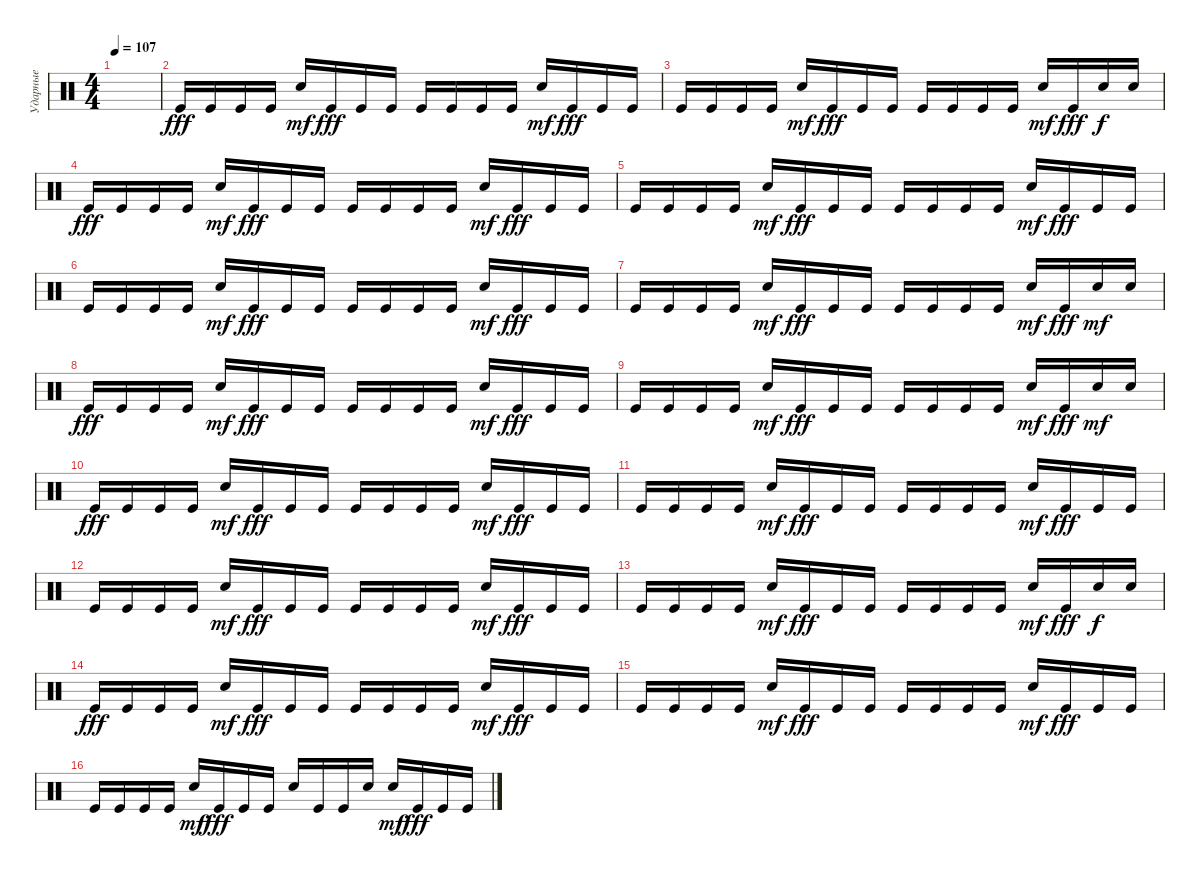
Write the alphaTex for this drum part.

\track ("Ударные" "Ударные") {instrument percussion}
\staff {score}
\articulation defaults
\ts (4 4)
\tempo 107
\clef neutral
\ks c
|
"Kick (hit)".16{dy fff} "Kick (hit)".16 "Kick (hit)".16 "Kick (hit)".16 "Electric Snare (hit)".16{dy mf} "Kick (hit)".16{dy fff} "Kick (hit)".16 "Kick (hit)".16 "Kick (hit)".16 "Kick (hit)".16 "Kick (hit)".16 "Kick (hit)".16 "Electric Snare (hit)".16{dy mf} "Kick (hit)".16{dy fff} "Kick (hit)".16 "Kick (hit)".16 |
"Kick (hit)".16 "Kick (hit)".16 "Kick (hit)".16 "Kick (hit)".16 "Electric Snare (hit)".16{dy mf} "Kick (hit)".16{dy fff} "Kick (hit)".16 "Kick (hit)".16 "Kick (hit)".16 "Kick (hit)".16 "Kick (hit)".16 "Kick (hit)".16 "Electric Snare (hit)".16{dy mf} "Kick (hit)".16{dy fff} "Electric Snare (hit)".16{dy f} "Electric Snare (hit)".16 |
"Kick (hit)".16{dy fff} "Kick (hit)".16 "Kick (hit)".16 "Kick (hit)".16 "Electric Snare (hit)".16{dy mf} "Kick (hit)".16{dy fff} "Kick (hit)".16 "Kick (hit)".16 "Kick (hit)".16 "Kick (hit)".16 "Kick (hit)".16 "Kick (hit)".16 "Electric Snare (hit)".16{dy mf} "Kick (hit)".16{dy fff} "Kick (hit)".16 "Kick (hit)".16 |
"Kick (hit)".16 "Kick (hit)".16 "Kick (hit)".16 "Kick (hit)".16 "Electric Snare (hit)".16{dy mf} "Kick (hit)".16{dy fff} "Kick (hit)".16 "Kick (hit)".16 "Kick (hit)".16 "Kick (hit)".16 "Kick (hit)".16 "Kick (hit)".16 "Electric Snare (hit)".16{dy mf} "Kick (hit)".16{dy fff} "Kick (hit)".16 "Kick (hit)".16 |
"Kick (hit)".16 "Kick (hit)".16 "Kick (hit)".16 "Kick (hit)".16 "Electric Snare (hit)".16{dy mf} "Kick (hit)".16{dy fff} "Kick (hit)".16 "Kick (hit)".16 "Kick (hit)".16 "Kick (hit)".16 "Kick (hit)".16 "Kick (hit)".16 "Electric Snare (hit)".16{dy mf} "Kick (hit)".16{dy fff} "Kick (hit)".16 "Kick (hit)".16 |
"Kick (hit)".16 "Kick (hit)".16 "Kick (hit)".16 "Kick (hit)".16 "Electric Snare (hit)".16{dy mf} "Kick (hit)".16{dy fff} "Kick (hit)".16 "Kick (hit)".16 "Kick (hit)".16 "Kick (hit)".16 "Kick (hit)".16 "Kick (hit)".16 "Electric Snare (hit)".16{dy mf} "Kick (hit)".16{dy fff} "Electric Snare (hit)".16{dy mf} "Electric Snare (hit)".16 |
"Kick (hit)".16{dy fff} "Kick (hit)".16 "Kick (hit)".16 "Kick (hit)".16 "Electric Snare (hit)".16{dy mf} "Kick (hit)".16{dy fff} "Kick (hit)".16 "Kick (hit)".16 "Kick (hit)".16 "Kick (hit)".16 "Kick (hit)".16 "Kick (hit)".16 "Electric Snare (hit)".16{dy mf} "Kick (hit)".16{dy fff} "Kick (hit)".16 "Kick (hit)".16 |
"Kick (hit)".16 "Kick (hit)".16 "Kick (hit)".16 "Kick (hit)".16 "Electric Snare (hit)".16{dy mf} "Kick (hit)".16{dy fff} "Kick (hit)".16 "Kick (hit)".16 "Kick (hit)".16 "Kick (hit)".16 "Kick (hit)".16 "Kick (hit)".16 "Electric Snare (hit)".16{dy mf} "Kick (hit)".16{dy fff} "Electric Snare (hit)".16{dy mf} "Electric Snare (hit)".16 |
"Kick (hit)".16{dy fff} "Kick (hit)".16 "Kick (hit)".16 "Kick (hit)".16 "Electric Snare (hit)".16{dy mf} "Kick (hit)".16{dy fff} "Kick (hit)".16 "Kick (hit)".16 "Kick (hit)".16 "Kick (hit)".16 "Kick (hit)".16 "Kick (hit)".16 "Electric Snare (hit)".16{dy mf} "Kick (hit)".16{dy fff} "Kick (hit)".16 "Kick (hit)".16 |
"Kick (hit)".16 "Kick (hit)".16 "Kick (hit)".16 "Kick (hit)".16 "Electric Snare (hit)".16{dy mf} "Kick (hit)".16{dy fff} "Kick (hit)".16 "Kick (hit)".16 "Kick (hit)".16 "Kick (hit)".16 "Kick (hit)".16 "Kick (hit)".16 "Electric Snare (hit)".16{dy mf} "Kick (hit)".16{dy fff} "Kick (hit)".16 "Kick (hit)".16 |
"Kick (hit)".16 "Kick (hit)".16 "Kick (hit)".16 "Kick (hit)".16 "Electric Snare (hit)".16{dy mf} "Kick (hit)".16{dy fff} "Kick (hit)".16 "Kick (hit)".16 "Kick (hit)".16 "Kick (hit)".16 "Kick (hit)".16 "Kick (hit)".16 "Electric Snare (hit)".16{dy mf} "Kick (hit)".16{dy fff} "Kick (hit)".16 "Kick (hit)".16 |
"Kick (hit)".16 "Kick (hit)".16 "Kick (hit)".16 "Kick (hit)".16 "Electric Snare (hit)".16{dy mf} "Kick (hit)".16{dy fff} "Kick (hit)".16 "Kick (hit)".16 "Kick (hit)".16 "Kick (hit)".16 "Kick (hit)".16 "Kick (hit)".16 "Electric Snare (hit)".16{dy mf} "Kick (hit)".16{dy fff} "Electric Snare (hit)".16{dy f} "Electric Snare (hit)".16 |
"Kick (hit)".16{dy fff} "Kick (hit)".16 "Kick (hit)".16 "Kick (hit)".16 "Electric Snare (hit)".16{dy mf} "Kick (hit)".16{dy fff} "Kick (hit)".16 "Kick (hit)".16 "Kick (hit)".16 "Kick (hit)".16 "Kick (hit)".16 "Kick (hit)".16 "Electric Snare (hit)".16{dy mf} "Kick (hit)".16{dy fff} "Kick (hit)".16 "Kick (hit)".16 |
"Kick (hit)".16 "Kick (hit)".16 "Kick (hit)".16 "Kick (hit)".16 "Electric Snare (hit)".16{dy mf} "Kick (hit)".16{dy fff} "Kick (hit)".16 "Kick (hit)".16 "Kick (hit)".16 "Kick (hit)".16 "Kick (hit)".16 "Kick (hit)".16 "Electric Snare (hit)".16{dy mf} "Kick (hit)".16{dy fff} "Kick (hit)".16 "Kick (hit)".16 |
"Kick (hit)".16 "Kick (hit)".16 "Kick (hit)".16 "Kick (hit)".16 "Electric Snare (hit)".16{dy mf} "Kick (hit)".16{dy fff} "Kick (hit)".16 "Kick (hit)".16 "Electric Snare (hit)".16 "Kick (hit)".16 "Kick (hit)".16 "Electric Snare (hit)".16 "Electric Snare (hit)".16{dy mf} "Kick (hit)".16{dy fff} "Kick (hit)".16 "Kick (hit)".16
